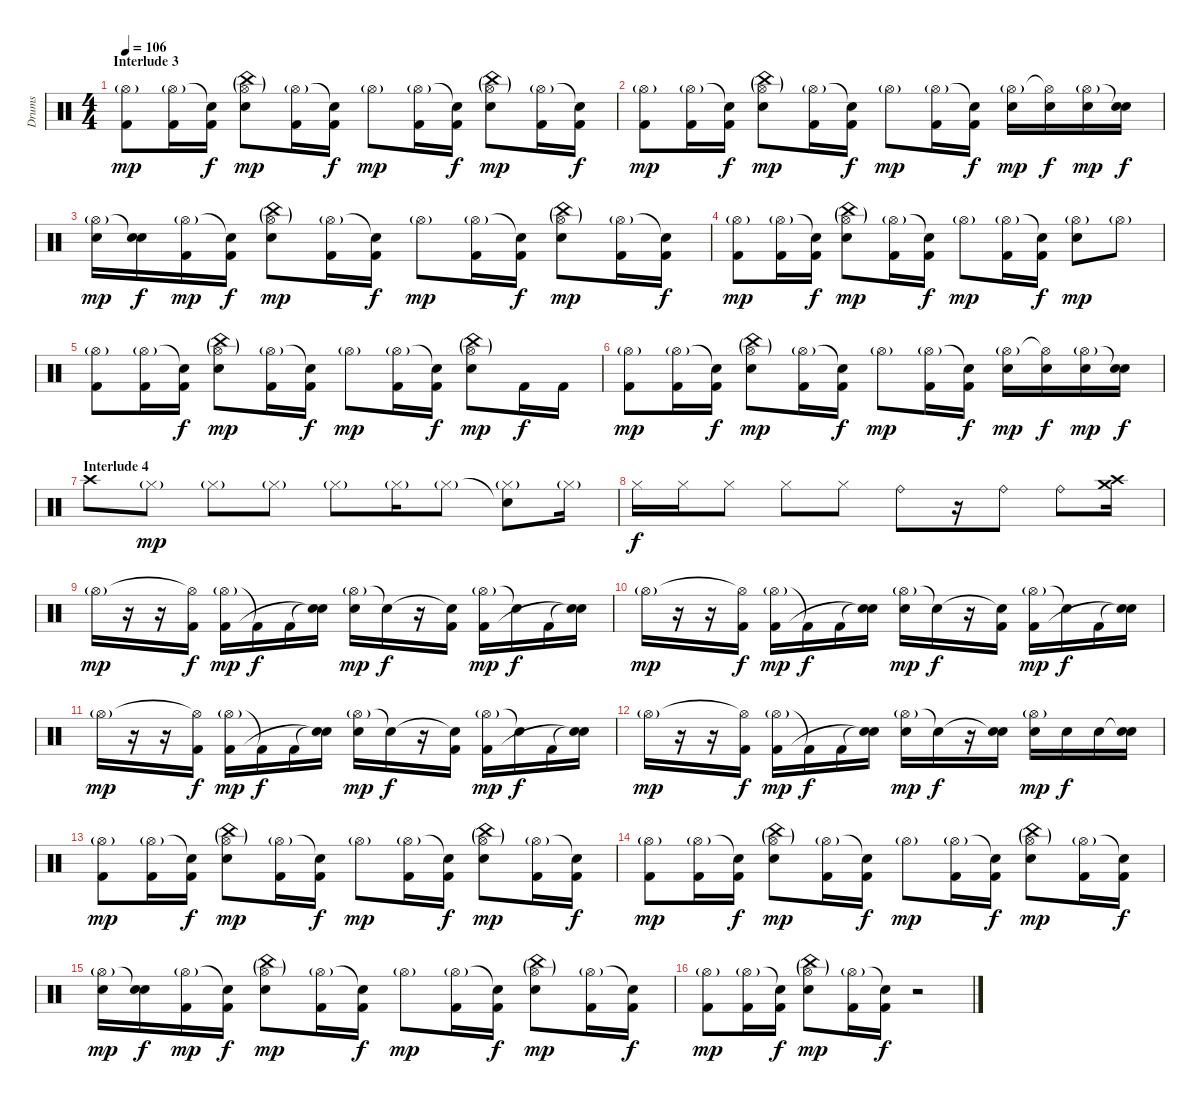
\track ("Drums" "Drums") {instrument percussion}
\staff {score}
\articulation defaults
\ts (4 4)
\section ("" "Interlude 3")
\tempo 106
\clef neutral
\ks c
("Hi-Hat (open)"{g} "Kick (hit) 2").8{dy mp} ("Hi-Hat (open)"{g} "Kick (hit) 2").16 ("Snare (hit)"{t} "Kick (hit) 2").16{dy f} ("China (hit)"{g} "Hi-Hat (open)"{g} "Electric Snare (hit)").8{dy mp} ("Hi-Hat (open)"{g} "Kick (hit) 2").16 ("Snare (hit)"{t} "Kick (hit) 2").16{dy f} "Hi-Hat (open)"{g}.8{dy mp} ("Hi-Hat (open)"{g} "Kick (hit) 2").16 ("Snare (hit)"{t} "Kick (hit) 2").16{dy f} ("China (hit)"{g} "Hi-Hat (open)"{g} "Electric Snare (hit)").8{dy mp} ("Hi-Hat (open)"{g} "Kick (hit) 2").16 ("Snare (hit)"{t} "Kick (hit) 2").16{dy f} |
("Hi-Hat (open)"{g} "Kick (hit) 2").8{dy mp} ("Hi-Hat (open)"{g} "Kick (hit) 2").16 ("Snare (hit)"{t} "Kick (hit) 2").16{dy f} ("China (hit)"{g} "Hi-Hat (open)"{g} "Electric Snare (hit)").8{dy mp} ("Hi-Hat (open)"{g} "Kick (hit) 2").16 ("Snare (hit)"{t} "Kick (hit) 2").16{dy f} "Hi-Hat (open)"{g}.8{dy mp} ("Hi-Hat (open)"{g} "Kick (hit) 2").16 ("Snare (hit)"{t} "Kick (hit) 2").16{dy f} ("Hi-Hat (open)"{g} "Electric Snare (hit)").16{dy mp} ("Hi-Hat (open)"{t} "Electric Snare (hit)").16{dy f} ("Hi-Hat (open)"{g} "Electric Snare (hit)").16{dy mp} ("Snare (hit)"{t} "Electric Snare (hit)").16{dy f} |
("Hi-Hat (open)"{g} "Electric Snare (hit)").16{dy mp} ("Snare (hit)"{t} "Electric Snare (hit)").16{dy f} ("Hi-Hat (open)"{g} "Kick (hit) 2").16{dy mp} ("Snare (hit)"{t} "Kick (hit) 2").16{dy f} ("China (hit)"{g} "Hi-Hat (open)"{g} "Electric Snare (hit)").8{dy mp} ("Hi-Hat (open)"{g} "Kick (hit) 2").16 ("Snare (hit)"{t} "Kick (hit) 2").16{dy f} "Hi-Hat (open)"{g}.8{dy mp} ("Hi-Hat (open)"{g} "Kick (hit) 2").16 ("Snare (hit)"{t} "Kick (hit) 2").16{dy f} ("China (hit)"{g} "Hi-Hat (open)"{g} "Electric Snare (hit)").8{dy mp} ("Hi-Hat (open)"{g} "Kick (hit) 2").16 ("Snare (hit)"{t} "Kick (hit) 2").16{dy f} |
("Hi-Hat (open)"{g} "Kick (hit) 2").8{dy mp} ("Hi-Hat (open)"{g} "Kick (hit) 2").16 ("Snare (hit)"{t} "Kick (hit) 2").16{dy f} ("China (hit)"{g} "Hi-Hat (open)"{g} "Electric Snare (hit)").8{dy mp} ("Hi-Hat (open)"{g} "Kick (hit) 2").16 ("Snare (hit)"{t} "Kick (hit) 2").16{dy f} "Hi-Hat (open)"{g}.8{dy mp} ("Hi-Hat (open)"{g} "Kick (hit) 2").16 ("Snare (hit)"{t} "Kick (hit) 2").16{dy f} ("Hi-Hat (open)"{g} "Electric Snare (hit)").8{dy mp} "Hi-Hat (open)"{g}.8 |
("Hi-Hat (open)"{g} "Kick (hit) 2").8 ("Hi-Hat (open)"{g} "Kick (hit) 2").16 ("Snare (hit)"{t} "Kick (hit) 2").16{dy f} ("China (hit)"{g} "Hi-Hat (open)"{g} "Electric Snare (hit)").8{dy mp} ("Hi-Hat (open)"{g} "Kick (hit) 2").16 ("Snare (hit)"{t} "Kick (hit) 2").16{dy f} "Hi-Hat (open)"{g}.8{dy mp} ("Hi-Hat (open)"{g} "Kick (hit) 2").16 ("Snare (hit)"{t} "Kick (hit) 2").16{dy f} ("China (hit)"{g} "Hi-Hat (open)"{g} "Electric Snare (hit)").8{dy mp} "Kick (hit) 2".16{dy f} "Kick (hit) 2".16 |
("Hi-Hat (open)"{g} "Kick (hit) 2").8{dy mp} ("Hi-Hat (open)"{g} "Kick (hit) 2").16 ("Snare (hit)"{t} "Kick (hit) 2").16{dy f} ("China (hit)"{g} "Hi-Hat (open)"{g} "Electric Snare (hit)").8{dy mp} ("Hi-Hat (open)"{g} "Kick (hit) 2").16 ("Snare (hit)"{t} "Kick (hit) 2").16{dy f} "Hi-Hat (open)"{g}.8{dy mp} ("Hi-Hat (open)"{g} "Kick (hit) 2").16 ("Snare (hit)"{t} "Kick (hit) 2").16{dy f} ("Hi-Hat (open)"{g} "Electric Snare (hit)").16{dy mp} ("Hi-Hat (open)"{t} "Electric Snare (hit)").16{dy f} ("Hi-Hat (open)"{g} "Electric Snare (hit)").16{dy mp} ("Snare (hit)"{t} "Electric Snare (hit)").16{dy f} |
\section ("" "Interlude 4")
"Crash high (hit)".8 "Hi-Hat (closed)"{g}.8{dy mp} "Hi-Hat (closed)"{g}.8 "Hi-Hat (closed)"{g}.8 "Hi-Hat (closed)"{g}.8 "Hi-Hat (closed)"{g}.16 "Hi-Hat (closed)"{g}.8 ("Snare (hit)"{t} "Hi-Hat (closed)"{g}).8 "Hi-Hat (closed)"{g}.16 |
"Hi-Hat (closed)".16{dy f} "Hi-Hat (closed)".16 "Hi-Hat (closed)".8 "Hi-Hat (closed)".8 "Hi-Hat (closed)".8 "Ride (bell)".8 r.16 "Ride (bell)".8 "Ride (bell)".8 ("Crash high (hit)" "Crash medium (hit)").16 |
"Hi-Hat (open)"{g}.16{dy mp} r.16 r.16 ("Hi-Hat (open)"{t} "Kick (hit) 2").16{dy f} ("Hi-Hat (open)"{g} "Kick (hit) 2").16{dy mp} "Kick (hit) 2"{t}.16{dy f} "Kick (hit) 2".16 ("Snare (hit)"{t} "Snare (hit)"{t}).16 ("Hi-Hat (open)"{g} "Electric Snare (hit)").16{dy mp} "Snare (hit)"{t}.16{dy f} r.16 ("Snare (hit)"{t} "Kick (hit) 2").16 ("Hi-Hat (open)"{g} "Kick (hit) 2").16{dy mp} "Snare (hit)"{t}.16{dy f} "Kick (hit) 2".16 ("Snare (hit)"{t} "Snare (hit)"{t}).16 |
"Hi-Hat (open)"{g}.16{dy mp} r.16 r.16 ("Hi-Hat (open)"{t} "Kick (hit) 2").16{dy f} ("Hi-Hat (open)"{g} "Kick (hit) 2").16{dy mp} "Kick (hit) 2"{t}.16{dy f} "Kick (hit) 2".16 ("Snare (hit)"{t} "Snare (hit)"{t}).16 ("Hi-Hat (open)"{g} "Electric Snare (hit)").16{dy mp} "Snare (hit)"{t}.16{dy f} r.16 ("Snare (hit)"{t} "Kick (hit) 2").16 ("Hi-Hat (open)"{g} "Kick (hit) 2").16{dy mp} "Snare (hit)"{t}.16{dy f} "Kick (hit) 2".16 ("Snare (hit)"{t} "Snare (hit)"{t}).16 |
"Hi-Hat (open)"{g}.16{dy mp} r.16 r.16 ("Hi-Hat (open)"{t} "Kick (hit) 2").16{dy f} ("Hi-Hat (open)"{g} "Kick (hit) 2").16{dy mp} "Kick (hit) 2"{t}.16{dy f} "Kick (hit) 2".16 ("Snare (hit)"{t} "Snare (hit)"{t}).16 ("Hi-Hat (open)"{g} "Electric Snare (hit)").16{dy mp} "Snare (hit)"{t}.16{dy f} r.16 ("Snare (hit)"{t} "Kick (hit) 2").16 ("Hi-Hat (open)"{g} "Kick (hit) 2").16{dy mp} "Snare (hit)"{t}.16{dy f} "Kick (hit) 2".16 ("Snare (hit)"{t} "Snare (hit)"{t}).16 |
"Hi-Hat (open)"{g}.16{dy mp} r.16 r.16 ("Hi-Hat (open)"{t} "Kick (hit) 2").16{dy f} ("Hi-Hat (open)"{g} "Kick (hit) 2").16{dy mp} "Kick (hit) 2"{t}.16{dy f} "Kick (hit) 2".16 ("Snare (hit)"{t} "Snare (hit)"{t}).16 ("Hi-Hat (open)"{g} "Electric Snare (hit)").16{dy mp} "Snare (hit)"{t}.16{dy f} r.16 ("Snare (hit)"{t} "Electric Snare (hit)").16 ("Hi-Hat (open)"{g} "Electric Snare (hit)").16{dy mp} "Electric Snare (hit)".16{dy f} "Electric Snare (hit)".16 ("Snare (hit)"{t} "Electric Snare (hit)").16 |
("Hi-Hat (open)"{g} "Kick (hit) 2").8{dy mp} ("Hi-Hat (open)"{g} "Kick (hit) 2").16 ("Snare (hit)"{t} "Kick (hit) 2").16{dy f} ("China (hit)"{g} "Hi-Hat (open)"{g} "Electric Snare (hit)").8{dy mp} ("Hi-Hat (open)"{g} "Kick (hit) 2").16 ("Snare (hit)"{t} "Kick (hit) 2").16{dy f} "Hi-Hat (open)"{g}.8{dy mp} ("Hi-Hat (open)"{g} "Kick (hit) 2").16 ("Snare (hit)"{t} "Kick (hit) 2").16{dy f} ("China (hit)"{g} "Hi-Hat (open)"{g} "Electric Snare (hit)").8{dy mp} ("Hi-Hat (open)"{g} "Kick (hit) 2").16 ("Snare (hit)"{t} "Kick (hit) 2").16{dy f} |
("Hi-Hat (open)"{g} "Kick (hit) 2").8{dy mp} ("Hi-Hat (open)"{g} "Kick (hit) 2").16 ("Snare (hit)"{t} "Kick (hit) 2").16{dy f} ("China (hit)"{g} "Hi-Hat (open)"{g} "Electric Snare (hit)").8{dy mp} ("Hi-Hat (open)"{g} "Kick (hit) 2").16 ("Snare (hit)"{t} "Kick (hit) 2").16{dy f} "Hi-Hat (open)"{g}.8{dy mp} ("Hi-Hat (open)"{g} "Kick (hit) 2").16 ("Snare (hit)"{t} "Kick (hit) 2").16{dy f} ("China (hit)"{g} "Hi-Hat (open)"{g} "Electric Snare (hit)").8{dy mp} ("Hi-Hat (open)"{g} "Kick (hit) 2").16 ("Snare (hit)"{t} "Kick (hit) 2").16{dy f} |
("Hi-Hat (open)"{g} "Electric Snare (hit)").16{dy mp} ("Snare (hit)"{t} "Electric Snare (hit)").16{dy f} ("Hi-Hat (open)"{g} "Kick (hit) 2").16{dy mp} ("Snare (hit)"{t} "Kick (hit) 2").16{dy f} ("China (hit)"{g} "Hi-Hat (open)"{g} "Electric Snare (hit)").8{dy mp} ("Hi-Hat (open)"{g} "Kick (hit) 2").16 ("Snare (hit)"{t} "Kick (hit) 2").16{dy f} "Hi-Hat (open)"{g}.8{dy mp} ("Hi-Hat (open)"{g} "Kick (hit) 2").16 ("Snare (hit)"{t} "Kick (hit) 2").16{dy f} ("China (hit)"{g} "Hi-Hat (open)"{g} "Electric Snare (hit)").8{dy mp} ("Hi-Hat (open)"{g} "Kick (hit) 2").16 ("Snare (hit)"{t} "Kick (hit) 2").16{dy f} |
("Hi-Hat (open)"{g} "Kick (hit) 2").8{dy mp} ("Hi-Hat (open)"{g} "Kick (hit) 2").16 ("Snare (hit)"{t} "Kick (hit) 2").16{dy f} ("China (hit)"{g} "Hi-Hat (open)"{g} "Electric Snare (hit)").8{dy mp} ("Hi-Hat (open)"{g} "Kick (hit) 2").16 ("Snare (hit)"{t} "Kick (hit) 2").16{dy f} r.2
